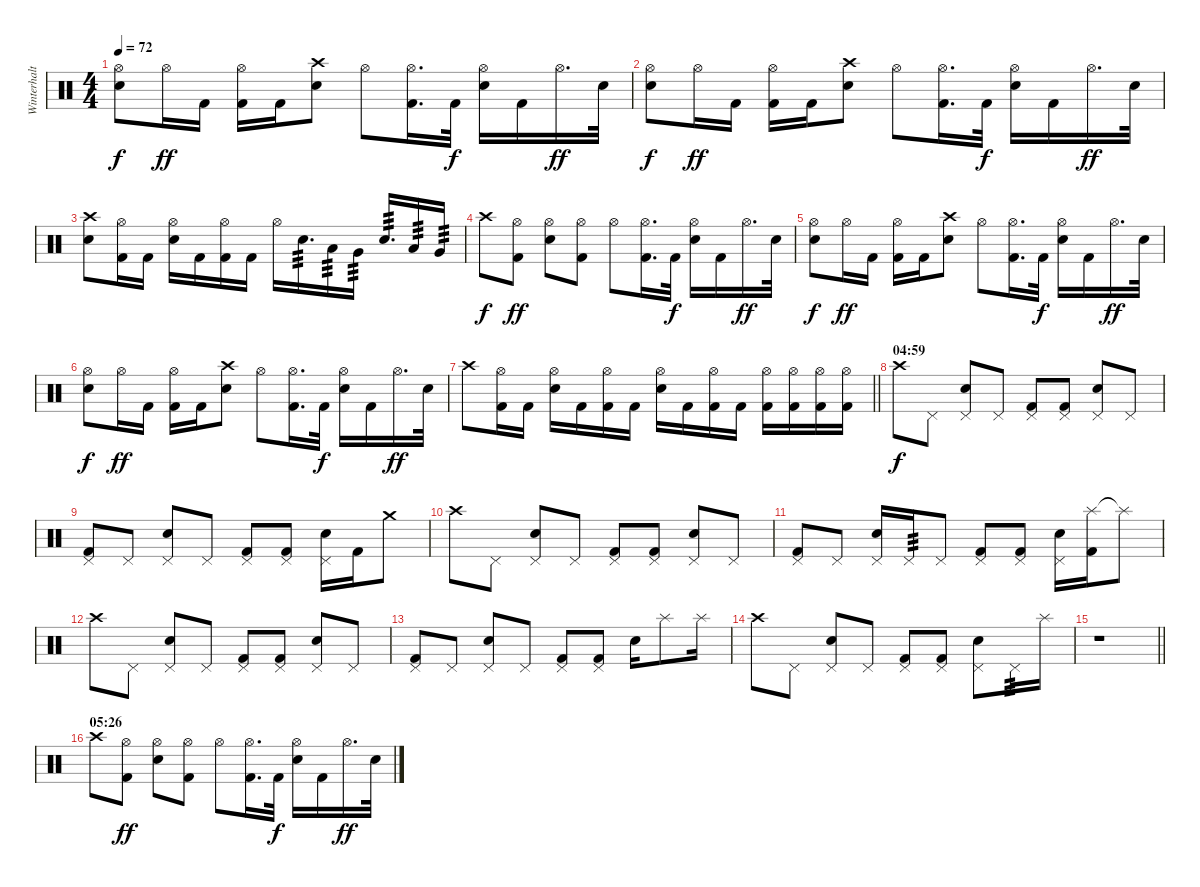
\track ("Winterhalten" "Winterhalt") {instrument percussion}
\staff {score}
\articulation defaults
\ts (4 4)
\tempo 72
\clef neutral
\ks c
("Hi-Hat (open)" "Electric Snare (hit)").8{dy f} "Hi-Hat (open)".16{dy ff} "Kick (hit) 2".16 ("Hi-Hat (open)" "Kick (hit) 2").16 "Kick (hit) 2".16 ("Crash high (hit)" "Electric Snare (hit)").8 "Hi-Hat (open)".8 ("Hi-Hat (open)" "Kick (hit) 2").16{d} "Kick (hit) 2".32{dy f} ("Hi-Hat (open)" "Electric Snare (hit)").16 "Kick (hit) 2".16 "Hi-Hat (open)".16{d dy ff} "Electric Snare (hit)".32 |
("Hi-Hat (open)" "Electric Snare (hit)").8{dy f} "Hi-Hat (open)".16{dy ff} "Kick (hit) 2".16 ("Hi-Hat (open)" "Kick (hit) 2").16 "Kick (hit) 2".16 ("Crash high (hit)" "Electric Snare (hit)").8 "Hi-Hat (open)".8 ("Hi-Hat (open)" "Kick (hit) 2").16{d} "Kick (hit) 2".32{dy f} ("Hi-Hat (open)" "Electric Snare (hit)").16 "Kick (hit) 2".16 "Hi-Hat (open)".16{d dy ff} "Electric Snare (hit)".32 |
("Crash high (hit)" "Electric Snare (hit)").8 ("Hi-Hat (open)" "Kick (hit) 2").16 "Kick (hit) 2".16 ("Hi-Hat (open)" "Electric Snare (hit)").16 "Kick (hit) 2".16 ("Hi-Hat (open)" "Kick (hit) 2").16 "Kick (hit) 2".16 "Hi-Hat (open)".16 "Snare (hit) 2".16{d tp 3} "Low Tom (hit)".16{tp 3} "Very Low Tom (hit)".16{tp 3} "Electric Snare (hit)".16{d tp 3} "Low Tom (hit)".16{tp 3} "Very Low Tom (hit)".16{tp 3} |
"Crash high (hit)".8{dy f} ("Hi-Hat (open)" "Kick (hit) 2").8{dy ff} ("Hi-Hat (open)" "Electric Snare (hit)").8 ("Hi-Hat (open)" "Kick (hit) 2").8 "Hi-Hat (open)".8 ("Hi-Hat (open)" "Kick (hit) 2").16{d} "Kick (hit) 2".32{dy f} ("Hi-Hat (open)" "Electric Snare (hit)").16 "Kick (hit) 2".16 "Hi-Hat (open)".16{d dy ff} "Electric Snare (hit)".32 |
("Hi-Hat (open)" "Electric Snare (hit)").8{dy f} "Hi-Hat (open)".16{dy ff} "Kick (hit) 2".16 ("Hi-Hat (open)" "Kick (hit) 2").16 "Kick (hit) 2".16 ("Crash high (hit)" "Electric Snare (hit)").8 "Hi-Hat (open)".8 ("Hi-Hat (open)" "Kick (hit) 2").16{d} "Kick (hit) 2".32{dy f} ("Hi-Hat (open)" "Electric Snare (hit)").16 "Kick (hit) 2".16 "Hi-Hat (open)".16{d dy ff} "Electric Snare (hit)".32 |
("Hi-Hat (open)" "Electric Snare (hit)").8{dy f} "Hi-Hat (open)".16{dy ff} "Kick (hit) 2".16 ("Hi-Hat (open)" "Kick (hit) 2").16 "Kick (hit) 2".16 ("Crash high (hit)" "Electric Snare (hit)").8 "Hi-Hat (open)".8 ("Hi-Hat (open)" "Kick (hit) 2").16{d} "Kick (hit) 2".32{dy f} ("Hi-Hat (open)" "Electric Snare (hit)").16 "Kick (hit) 2".16 "Hi-Hat (open)".16{d dy ff} "Electric Snare (hit)".32 |
\barLineRight lightlight "Crash high (hit)".8
("Hi-Hat (open)" "Kick (hit) 2").16 "Kick (hit) 2".16 ("Hi-Hat (open)" "Electric Snare (hit)").16 "Kick (hit) 2".16 ("Hi-Hat (open)" "Kick (hit) 2").16 "Kick (hit) 2".16 ("Hi-Hat (open)" "Electric Snare (hit)").16 "Kick (hit) 2".16 ("Hi-Hat (open)" "Kick (hit) 2").16 "Kick (hit) 2".16 ("Hi-Hat (open)" "Kick (hit) 2").16 ("Hi-Hat (open)" "Kick (hit) 2").16 ("Hi-Hat (open)" "Kick (hit) 2").16 ("Hi-Hat (open)" "Kick (hit) 2").16 |
\section ("" "04:59")
"Crash high (hit)".8{dy f} "Pedal Hi-Hat (hit)".8 ("Pedal Hi-Hat (hit)" "Electric Snare (hit)").8 "Pedal Hi-Hat (hit)".8 ("Pedal Hi-Hat (hit)" "Kick (hit) 2").8 ("Pedal Hi-Hat (hit)" "Kick (hit) 2").8 ("Pedal Hi-Hat (hit)" "Electric Snare (hit)").8 "Pedal Hi-Hat (hit)".8 |
("Pedal Hi-Hat (hit)" "Kick (hit) 2").8 "Pedal Hi-Hat (hit)".8 ("Pedal Hi-Hat (hit)" "Electric Snare (hit)").8 "Pedal Hi-Hat (hit)".8 ("Pedal Hi-Hat (hit)" "Kick (hit) 2").8 ("Pedal Hi-Hat (hit)" "Kick (hit) 2").8 ("Pedal Hi-Hat (hit)" "Electric Snare (hit)").16 "Kick (hit) 2".16 "Crash medium (hit)".8 |
"Crash high (hit)".8 "Pedal Hi-Hat (hit)".8 ("Pedal Hi-Hat (hit)" "Electric Snare (hit)").8 "Pedal Hi-Hat (hit)".8 ("Pedal Hi-Hat (hit)" "Kick (hit) 2").8 ("Pedal Hi-Hat (hit)" "Kick (hit) 2").8 ("Pedal Hi-Hat (hit)" "Electric Snare (hit)").8 "Pedal Hi-Hat (hit)".8 |
("Pedal Hi-Hat (hit)" "Kick (hit) 2").8 "Pedal Hi-Hat (hit)".8 ("Pedal Hi-Hat (hit)" "Electric Snare (hit)").16 "Pedal Hi-Hat (hit)".16{tp 3} "Pedal Hi-Hat (hit)".8 ("Pedal Hi-Hat (hit)" "Kick (hit) 2").8 ("Pedal Hi-Hat (hit)" "Kick (hit) 2").8 ("Pedal Hi-Hat (hit)" "Electric Snare (hit)").16 ("Splash (hit)" "Kick (hit) 2").16 "Splash (hit)"{t}.8 |
"Crash high (hit)".8 "Pedal Hi-Hat (hit)".8 ("Pedal Hi-Hat (hit)" "Electric Snare (hit)").8 "Pedal Hi-Hat (hit)".8 ("Pedal Hi-Hat (hit)" "Kick (hit) 2").8 ("Pedal Hi-Hat (hit)" "Kick (hit) 2").8 ("Pedal Hi-Hat (hit)" "Electric Snare (hit)").8 "Pedal Hi-Hat (hit)".8 |
("Pedal Hi-Hat (hit)" "Kick (hit) 2").8 "Pedal Hi-Hat (hit)".8 ("Pedal Hi-Hat (hit)" "Electric Snare (hit)").8 "Pedal Hi-Hat (hit)".8 ("Pedal Hi-Hat (hit)" "Kick (hit) 2").8 ("Pedal Hi-Hat (hit)" "Kick (hit) 2").8 "Electric Snare (hit)".16 "Splash (hit)".8 "Splash (hit)".16 |
"Crash high (hit)".8 "Pedal Hi-Hat (hit)".8 ("Pedal Hi-Hat (hit)" "Electric Snare (hit)").8 "Pedal Hi-Hat (hit)".8 ("Pedal Hi-Hat (hit)" "Kick (hit) 2").8 ("Pedal Hi-Hat (hit)" "Kick (hit) 2").8 ("Pedal Hi-Hat (hit)" "Electric Snare (hit)").8 "Pedal Hi-Hat (hit)".16{tp 3} "Splash (hit)".16 |
\barLineRight lightlight
r.1 |
\section ("" "05:26")
"Crash high (hit)".8 ("Hi-Hat (open)" "Kick (hit) 2").8{dy ff} ("Hi-Hat (open)" "Electric Snare (hit)").8 ("Hi-Hat (open)" "Kick (hit) 2").8 "Hi-Hat (open)".8 ("Hi-Hat (open)" "Kick (hit) 2").16{d} "Kick (hit) 2".32{dy f} ("Hi-Hat (open)" "Electric Snare (hit)").16 "Kick (hit) 2".16 "Hi-Hat (open)".16{d dy ff} "Electric Snare (hit)".32
